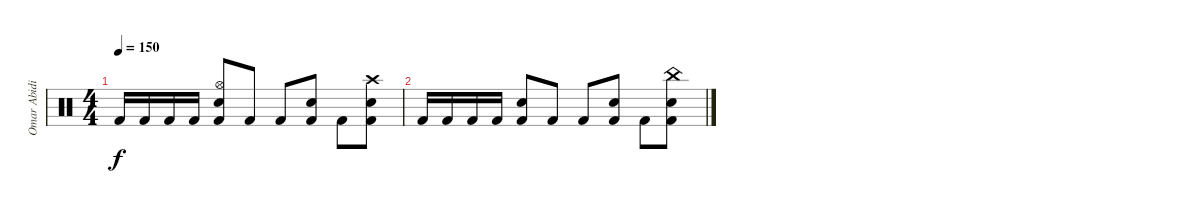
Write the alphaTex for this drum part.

\track ("Omar Abidi" "Omar Abidi") {instrument percussion}
\staff {score}
\articulation defaults
\ts (4 4)
\tempo 150
\clef neutral
\ks c "Kick (hit) 2".16{dy f} "Kick (hit) 2".16 "Kick (hit) 2".16 "Kick (hit) 2".16
("Hi-Hat (open)" "Snare (hit) 2" "Kick (hit) 2").8 "Kick (hit) 2".8 "Kick (hit) 2".8 ("Snare (hit) 2" "Kick (hit) 2").8 "Kick (hit) 2".8 ("Crash high (hit)" "Snare (hit) 2" "Kick (hit) 2").8 |
"Kick (hit) 2".16 "Kick (hit) 2".16 "Kick (hit) 2".16 "Kick (hit) 2".16 ("Snare (hit) 2" "Kick (hit) 2").8 "Kick (hit) 2".8 "Kick (hit) 2".8 ("Snare (hit) 2" "Kick (hit) 2").8 "Kick (hit) 2".8 ("China (hit)" "Snare (hit) 2" "Kick (hit) 2").8
